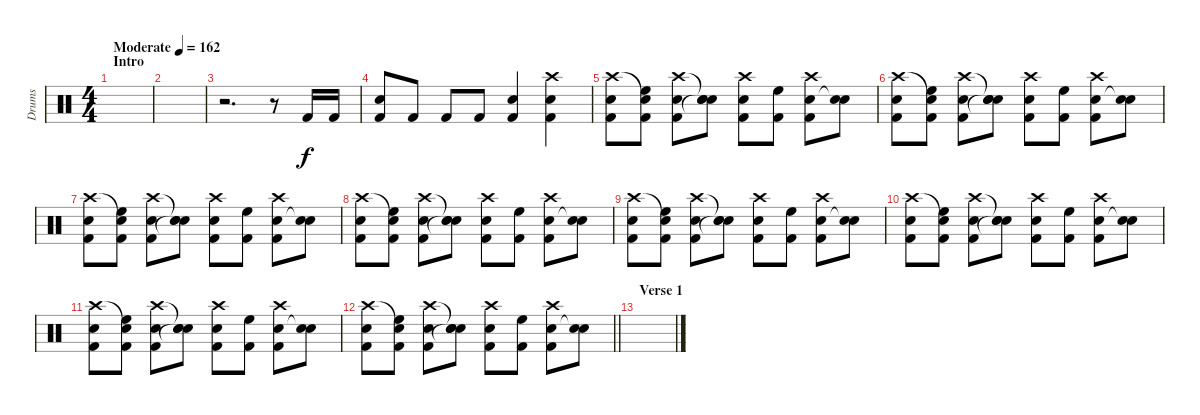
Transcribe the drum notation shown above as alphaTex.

\track ("Drums" "Drums") {instrument percussion}
\staff {score}
\articulation defaults
\ts (4 4)
\section ("" "Intro")
\tempo (162 "Moderate")
\clef neutral
\ks c
|
|
r.2{d} r.8 "Kick (hit) 2".16 "Kick (hit) 2".16 |
("Snare (hit) 2" "Kick (hit) 2").8 "Kick (hit) 2".8 "Kick (hit) 2".8 "Kick (hit) 2".8 ("Snare (hit) 2" "Kick (hit) 2").4 ("Crash high (hit)" "Snare (hit) 2" "Kick (hit) 2").4 |
("Crash high (hit)" "Snare (hit) 2" "Kick (hit) 2").8 ("Snare (hit)"{t} "High Floor Tom (hit)" "Kick (hit) 2").8 ("Crash high (hit)" "Snare (hit) 2" "Kick (hit) 2").8 ("Snare (hit)"{t} "Snare (hit) 2" "Snare (hit)"{t}).8 ("Crash high (hit)" "Snare (hit) 2" "Kick (hit) 2").8 ("High Floor Tom (hit)" "Kick (hit) 2").8 ("Crash high (hit)" "Snare (hit) 2" "Kick (hit) 2").8 ("Snare (hit) 2" "Snare (hit)"{t}).8 |
("Crash high (hit)" "Snare (hit) 2" "Kick (hit) 2").8 ("Snare (hit)"{t} "High Floor Tom (hit)" "Kick (hit) 2").8 ("Crash high (hit)" "Snare (hit) 2" "Kick (hit) 2").8 ("Snare (hit)"{t} "Snare (hit) 2" "Snare (hit)"{t}).8 ("Crash high (hit)" "Snare (hit) 2" "Kick (hit) 2").8 ("High Floor Tom (hit)" "Kick (hit) 2").8 ("Crash high (hit)" "Snare (hit) 2" "Kick (hit) 2").8 ("Snare (hit) 2" "Snare (hit)"{t}).8 |
("Crash high (hit)" "Snare (hit) 2" "Kick (hit) 2").8 ("Snare (hit)"{t} "High Floor Tom (hit)" "Kick (hit) 2").8 ("Crash high (hit)" "Snare (hit) 2" "Kick (hit) 2").8 ("Snare (hit)"{t} "Snare (hit) 2" "Snare (hit)"{t}).8 ("Crash high (hit)" "Snare (hit) 2" "Kick (hit) 2").8 ("High Floor Tom (hit)" "Kick (hit) 2").8 ("Crash high (hit)" "Snare (hit) 2" "Kick (hit) 2").8 ("Snare (hit) 2" "Snare (hit)"{t}).8 |
("Crash high (hit)" "Snare (hit) 2" "Kick (hit) 2").8 ("Snare (hit)"{t} "High Floor Tom (hit)" "Kick (hit) 2").8 ("Crash high (hit)" "Snare (hit) 2" "Kick (hit) 2").8 ("Snare (hit)"{t} "Snare (hit) 2" "Snare (hit)"{t}).8 ("Crash high (hit)" "Snare (hit) 2" "Kick (hit) 2").8 ("High Floor Tom (hit)" "Kick (hit) 2").8 ("Crash high (hit)" "Snare (hit) 2" "Kick (hit) 2").8 ("Snare (hit) 2" "Snare (hit)"{t}).8 |
("Crash high (hit)" "Snare (hit) 2" "Kick (hit) 2").8 ("Snare (hit)"{t} "High Floor Tom (hit)" "Kick (hit) 2").8 ("Crash high (hit)" "Snare (hit) 2" "Kick (hit) 2").8 ("Snare (hit)"{t} "Snare (hit) 2" "Snare (hit)"{t}).8 ("Crash high (hit)" "Snare (hit) 2" "Kick (hit) 2").8 ("High Floor Tom (hit)" "Kick (hit) 2").8 ("Crash high (hit)" "Snare (hit) 2" "Kick (hit) 2").8 ("Snare (hit) 2" "Snare (hit)"{t}).8 |
("Crash high (hit)" "Snare (hit) 2" "Kick (hit) 2").8 ("Snare (hit)"{t} "High Floor Tom (hit)" "Kick (hit) 2").8 ("Crash high (hit)" "Snare (hit) 2" "Kick (hit) 2").8 ("Snare (hit)"{t} "Snare (hit) 2" "Snare (hit)"{t}).8 ("Crash high (hit)" "Snare (hit) 2" "Kick (hit) 2").8 ("High Floor Tom (hit)" "Kick (hit) 2").8 ("Crash high (hit)" "Snare (hit) 2" "Kick (hit) 2").8 ("Snare (hit) 2" "Snare (hit)"{t}).8 |
("Crash high (hit)" "Snare (hit) 2" "Kick (hit) 2").8 ("Snare (hit)"{t} "High Floor Tom (hit)" "Kick (hit) 2").8 ("Crash high (hit)" "Snare (hit) 2" "Kick (hit) 2").8 ("Snare (hit)"{t} "Snare (hit) 2" "Snare (hit)"{t}).8 ("Crash high (hit)" "Snare (hit) 2" "Kick (hit) 2").8 ("High Floor Tom (hit)" "Kick (hit) 2").8 ("Crash high (hit)" "Snare (hit) 2" "Kick (hit) 2").8 ("Snare (hit) 2" "Snare (hit)"{t}).8 |
\barLineRight lightlight
("Crash high (hit)" "Snare (hit) 2" "Kick (hit) 2").8 ("Snare (hit)"{t} "High Floor Tom (hit)" "Kick (hit) 2").8 ("Crash high (hit)" "Snare (hit) 2" "Kick (hit) 2").8 ("Snare (hit)"{t} "Snare (hit) 2" "Snare (hit)"{t}).8 ("Crash high (hit)" "Snare (hit) 2" "Kick (hit) 2").8 ("High Floor Tom (hit)" "Kick (hit) 2").8 ("Crash high (hit)" "Snare (hit) 2" "Kick (hit) 2").8 ("Snare (hit) 2" "Snare (hit)"{t}).8 |
\section ("" "Verse 1")
